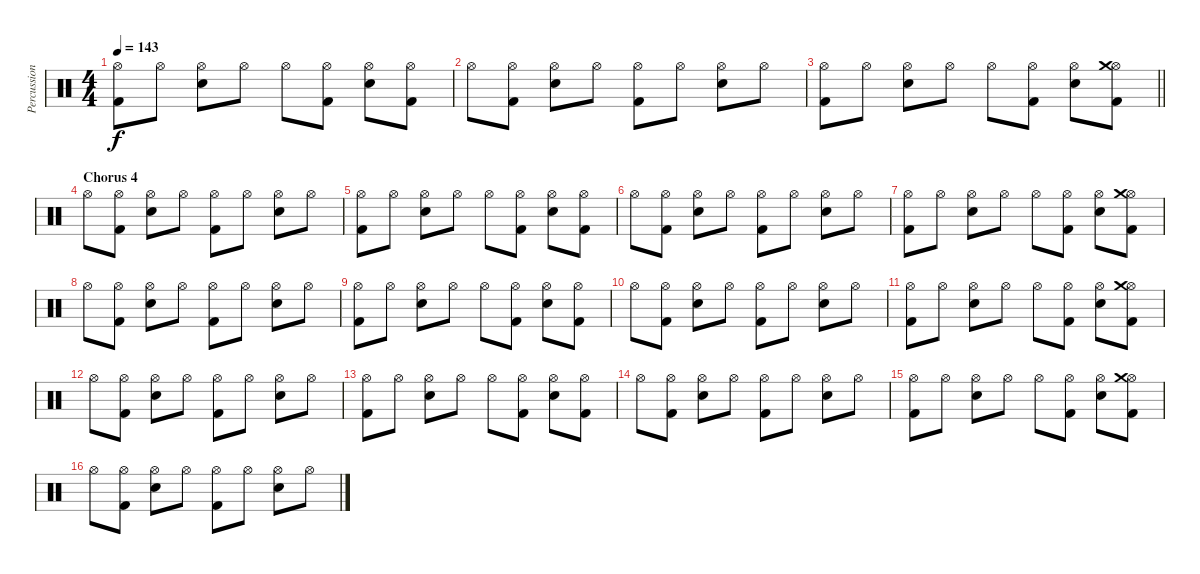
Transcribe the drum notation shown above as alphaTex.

\track ("Percussion" "Percussion") {instrument percussion}
\staff {score}
\articulation defaults
\ts (4 4)
\tempo 143
\clef neutral
\ks c
("Hi-Hat (open)" "Kick (hit) 2").8{dy f} "Hi-Hat (open)".8 ("Hi-Hat (open)" "Snare (hit) 2").8 "Hi-Hat (open)".8 "Hi-Hat (open)".8 ("Hi-Hat (open)" "Kick (hit) 2").8 ("Hi-Hat (open)" "Snare (hit) 2").8 ("Hi-Hat (open)" "Kick (hit) 2").8 |
"Hi-Hat (open)".8 ("Hi-Hat (open)" "Kick (hit) 2").8 ("Hi-Hat (open)" "Snare (hit) 2").8 "Hi-Hat (open)".8 ("Hi-Hat (open)" "Kick (hit) 2").8 "Hi-Hat (open)".8 ("Hi-Hat (open)" "Snare (hit) 2").8 "Hi-Hat (open)".8 |
\barLineRight lightlight
("Hi-Hat (open)" "Kick (hit) 2").8 "Hi-Hat (open)".8 ("Hi-Hat (open)" "Snare (hit) 2").8 "Hi-Hat (open)".8 "Hi-Hat (open)".8 ("Hi-Hat (open)" "Kick (hit) 2").8 ("Hi-Hat (open)" "Snare (hit) 2").8 ("Hi-Hat (open)" "Crash medium (hit)" "Kick (hit) 2").8 |
\section ("" "Chorus 4")
"Hi-Hat (open)".8 ("Hi-Hat (open)" "Kick (hit) 2").8 ("Hi-Hat (open)" "Snare (hit) 2").8 "Hi-Hat (open)".8 ("Hi-Hat (open)" "Kick (hit) 2").8 "Hi-Hat (open)".8 ("Hi-Hat (open)" "Snare (hit) 2").8 "Hi-Hat (open)".8 |
("Hi-Hat (open)" "Kick (hit) 2").8 "Hi-Hat (open)".8 ("Hi-Hat (open)" "Snare (hit) 2").8 "Hi-Hat (open)".8 "Hi-Hat (open)".8 ("Hi-Hat (open)" "Kick (hit) 2").8 ("Hi-Hat (open)" "Snare (hit) 2").8 ("Hi-Hat (open)" "Kick (hit) 2").8 |
"Hi-Hat (open)".8 ("Hi-Hat (open)" "Kick (hit) 2").8 ("Hi-Hat (open)" "Snare (hit) 2").8 "Hi-Hat (open)".8 ("Hi-Hat (open)" "Kick (hit) 2").8 "Hi-Hat (open)".8 ("Hi-Hat (open)" "Snare (hit) 2").8 "Hi-Hat (open)".8 |
("Hi-Hat (open)" "Kick (hit) 2").8 "Hi-Hat (open)".8 ("Hi-Hat (open)" "Snare (hit) 2").8 "Hi-Hat (open)".8 "Hi-Hat (open)".8 ("Hi-Hat (open)" "Kick (hit) 2").8 ("Hi-Hat (open)" "Snare (hit) 2").8 ("Hi-Hat (open)" "Crash medium (hit)" "Kick (hit) 2").8 |
"Hi-Hat (open)".8 ("Hi-Hat (open)" "Kick (hit) 2").8 ("Hi-Hat (open)" "Snare (hit) 2").8 "Hi-Hat (open)".8 ("Hi-Hat (open)" "Kick (hit) 2").8 "Hi-Hat (open)".8 ("Hi-Hat (open)" "Snare (hit) 2").8 "Hi-Hat (open)".8 |
("Hi-Hat (open)" "Kick (hit) 2").8 "Hi-Hat (open)".8 ("Hi-Hat (open)" "Snare (hit) 2").8 "Hi-Hat (open)".8 "Hi-Hat (open)".8 ("Hi-Hat (open)" "Kick (hit) 2").8 ("Hi-Hat (open)" "Snare (hit) 2").8 ("Hi-Hat (open)" "Kick (hit) 2").8 |
"Hi-Hat (open)".8 ("Hi-Hat (open)" "Kick (hit) 2").8 ("Hi-Hat (open)" "Snare (hit) 2").8 "Hi-Hat (open)".8 ("Hi-Hat (open)" "Kick (hit) 2").8 "Hi-Hat (open)".8 ("Hi-Hat (open)" "Snare (hit) 2").8 "Hi-Hat (open)".8 |
("Hi-Hat (open)" "Kick (hit) 2").8 "Hi-Hat (open)".8 ("Hi-Hat (open)" "Snare (hit) 2").8 "Hi-Hat (open)".8 "Hi-Hat (open)".8 ("Hi-Hat (open)" "Kick (hit) 2").8 ("Hi-Hat (open)" "Snare (hit) 2").8 ("Hi-Hat (open)" "Crash medium (hit)" "Kick (hit) 2").8 |
"Hi-Hat (open)".8 ("Hi-Hat (open)" "Kick (hit) 2").8 ("Hi-Hat (open)" "Snare (hit) 2").8 "Hi-Hat (open)".8 ("Hi-Hat (open)" "Kick (hit) 2").8 "Hi-Hat (open)".8 ("Hi-Hat (open)" "Snare (hit) 2").8 "Hi-Hat (open)".8 |
("Hi-Hat (open)" "Kick (hit) 2").8 "Hi-Hat (open)".8 ("Hi-Hat (open)" "Snare (hit) 2").8 "Hi-Hat (open)".8 "Hi-Hat (open)".8 ("Hi-Hat (open)" "Kick (hit) 2").8 ("Hi-Hat (open)" "Snare (hit) 2").8 ("Hi-Hat (open)" "Kick (hit) 2").8 |
"Hi-Hat (open)".8 ("Hi-Hat (open)" "Kick (hit) 2").8 ("Hi-Hat (open)" "Snare (hit) 2").8 "Hi-Hat (open)".8 ("Hi-Hat (open)" "Kick (hit) 2").8 "Hi-Hat (open)".8 ("Hi-Hat (open)" "Snare (hit) 2").8 "Hi-Hat (open)".8 |
("Hi-Hat (open)" "Kick (hit) 2").8 "Hi-Hat (open)".8 ("Hi-Hat (open)" "Snare (hit) 2").8 "Hi-Hat (open)".8 "Hi-Hat (open)".8 ("Hi-Hat (open)" "Kick (hit) 2").8 ("Hi-Hat (open)" "Snare (hit) 2").8 ("Hi-Hat (open)" "Crash medium (hit)" "Kick (hit) 2").8 |
"Hi-Hat (open)".8 ("Hi-Hat (open)" "Kick (hit) 2").8 ("Hi-Hat (open)" "Snare (hit) 2").8 "Hi-Hat (open)".8 ("Hi-Hat (open)" "Kick (hit) 2").8 "Hi-Hat (open)".8 ("Hi-Hat (open)" "Snare (hit) 2").8 "Hi-Hat (open)".8
